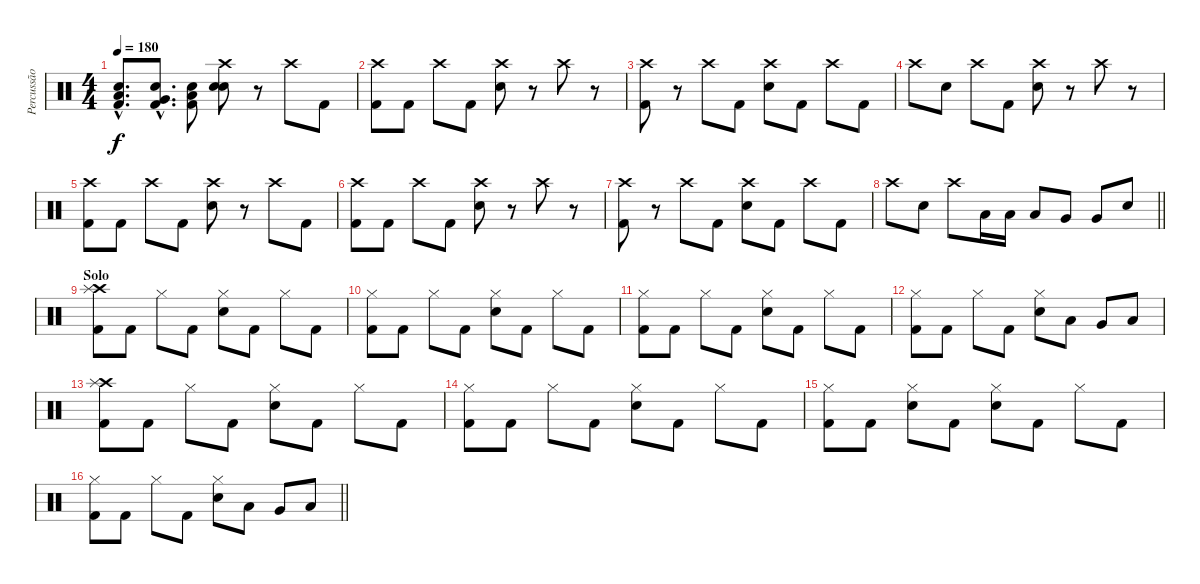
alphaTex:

\track ("Percussão" "Percussão") {instrument percussion}
\staff {score}
\articulation defaults
\ts (4 4)
\tempo 180
\clef neutral
\ks c
("Low Tom (hit)"{hac} "Electric Snare (hit)"{hac} "Kick (hit) 2"{hac}).8{d dy f} ("Very Low Tom (hit)"{hac} "Electric Snare (hit)"{hac} "Kick (hit) 2"{hac}).8{d} ("Low Floor Tom (hit)" "Electric Snare (hit)" "Kick (hit) 2").8 ("Crash high (hit)" "Electric Snare (hit)" "Electric Snare (hit)").8 r.8 "Crash high (hit)".8 "Kick (hit) 2".8 |
("Crash high (hit)" "Kick (hit) 2").8 "Kick (hit) 2".8 "Crash high (hit)".8 "Kick (hit) 2".8 ("Crash high (hit)" "Electric Snare (hit)").8 r.8 "Crash high (hit)".8 r.8 |
("Crash high (hit)" "Kick (hit) 2").8 r.8 "Crash high (hit)".8 "Kick (hit) 2".8 ("Crash high (hit)" "Electric Snare (hit)").8 "Kick (hit) 2".8 "Crash high (hit)".8 "Kick (hit) 2".8 |
"Crash high (hit)".8 "Electric Snare (hit)".8 "Crash high (hit)".8 "Kick (hit) 2".8 ("Crash high (hit)" "Electric Snare (hit)").8 r.8 "Crash high (hit)".8 r.8 |
("Crash high (hit)" "Kick (hit) 2").8 "Kick (hit) 2".8 "Crash high (hit)".8 "Kick (hit) 2".8 ("Crash high (hit)" "Electric Snare (hit)").8 r.8 "Crash high (hit)".8 "Kick (hit) 2".8 |
("Crash high (hit)" "Kick (hit) 2").8 "Kick (hit) 2".8 "Crash high (hit)".8 "Kick (hit) 2".8 ("Crash high (hit)" "Electric Snare (hit)").8 r.8 "Crash high (hit)".8 r.8 |
("Crash high (hit)" "Kick (hit) 2").8 r.8 "Crash high (hit)".8 "Kick (hit) 2".8 ("Crash high (hit)" "Electric Snare (hit)").8 "Kick (hit) 2".8 "Crash high (hit)".8 "Kick (hit) 2".8 |
\barLineRight lightlight "Crash high (hit)".8 "Electric Snare (hit)".8 "Crash high (hit)".8 "Low Tom (hit)".16 "Low Tom (hit)".16 "Low Tom (hit)".8 "Very Low Tom (hit)".8 "Very Low Tom (hit)".8 "Electric Snare (hit)".8
|
\section ("" "Solo")
("Crash high (hit)" "Splash (hit)" "Kick (hit) 2").8 "Kick (hit) 2".8 "Hi-Hat (closed)".8 "Kick (hit) 2".8 ("Hi-Hat (closed)" "Electric Snare (hit)").8 "Kick (hit) 2".8 "Hi-Hat (closed)".8 "Kick (hit) 2".8 |
("Hi-Hat (closed)" "Kick (hit) 2").8 "Kick (hit) 2".8 "Hi-Hat (closed)".8 "Kick (hit) 2".8 ("Hi-Hat (closed)" "Electric Snare (hit)").8 "Kick (hit) 2".8 "Hi-Hat (closed)".8 "Kick (hit) 2".8 |
("Hi-Hat (closed)" "Kick (hit) 2").8 "Kick (hit) 2".8 "Hi-Hat (closed)".8 "Kick (hit) 2".8 ("Hi-Hat (closed)" "Electric Snare (hit)").8 "Kick (hit) 2".8 "Hi-Hat (closed)".8 "Kick (hit) 2".8 |
("Hi-Hat (closed)" "Kick (hit) 2").8 "Kick (hit) 2".8 "Hi-Hat (closed)".8 "Kick (hit) 2".8 ("Hi-Hat (closed)" "Electric Snare (hit)").8 "Low Tom (hit)".8 "Very Low Tom (hit)".8 "Low Floor Tom (hit)".8 |
("Crash high (hit)" "Splash (hit)" "Kick (hit) 2").8 "Kick (hit) 2".8 "Hi-Hat (closed)".8 "Kick (hit) 2".8 ("Hi-Hat (closed)" "Electric Snare (hit)").8 "Kick (hit) 2".8 "Hi-Hat (closed)".8 "Kick (hit) 2".8 |
("Hi-Hat (closed)" "Kick (hit) 2").8 "Kick (hit) 2".8 "Hi-Hat (closed)".8 "Kick (hit) 2".8 ("Hi-Hat (closed)" "Electric Snare (hit)").8 "Kick (hit) 2".8 "Hi-Hat (closed)".8 "Kick (hit) 2".8 |
("Hi-Hat (closed)" "Kick (hit) 2").8 "Kick (hit) 2".8 ("Hi-Hat (closed)" "Electric Snare (hit)").8 "Kick (hit) 2".8 ("Hi-Hat (closed)" "Electric Snare (hit)").8 "Kick (hit) 2".8 "Hi-Hat (closed)".8 "Kick (hit) 2".8 |
\barLineRight lightlight
("Hi-Hat (closed)" "Kick (hit) 2").8 "Kick (hit) 2".8 "Hi-Hat (closed)".8 "Kick (hit) 2".8 ("Hi-Hat (closed)" "Electric Snare (hit)").8 "Low Tom (hit)".8 "Very Low Tom (hit)".8 "Low Floor Tom (hit)".8
